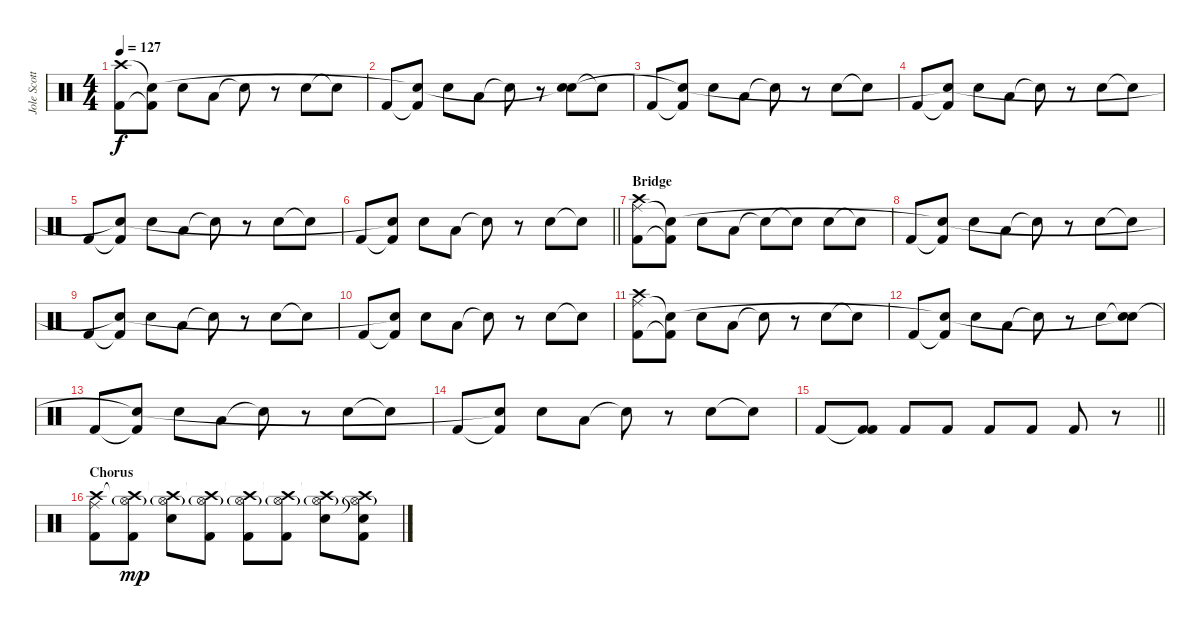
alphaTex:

\track ("Jole Scott Key" "Jole Scott") {instrument percussion}
\staff {score}
\articulation defaults
\ts (4 4)
\tempo 127
\clef neutral
\ks c
("Kick (hit) 2" "Crash high (hit)").8{dy f} ("Kick (hit) 2"{t} "Electric Snare (hit)"{t}).8 "Electric Snare (hit)".8 "Low Floor Tom (hit)".8 "Snare (hit)"{t}.8 r.8 "Electric Snare (hit)".8 "Electric Snare (hit)"{t}.8 |
"Kick (hit) 2".8 ("Kick (hit) 2"{t} "Electric Snare (hit)"{t}).8 "Electric Snare (hit)".8 "Low Floor Tom (hit)".8 "Snare (hit)"{t}.8 r.8 ("Electric Snare (hit)" "Snare (hit)"{t}).8 "Electric Snare (hit)"{t}.8 |
"Kick (hit) 2".8 ("Kick (hit) 2"{t} "Electric Snare (hit)"{t}).8 "Electric Snare (hit)".8 "Low Floor Tom (hit)".8 "Snare (hit)"{t}.8 r.8 "Electric Snare (hit)".8 "Electric Snare (hit)"{t}.8 |
"Kick (hit) 2".8 ("Kick (hit) 2"{t} "Electric Snare (hit)"{t}).8 "Electric Snare (hit)".8 "Low Floor Tom (hit)".8 "Snare (hit)"{t}.8 r.8 "Electric Snare (hit)".8 "Electric Snare (hit)"{t}.8 |
"Kick (hit) 2".8 ("Kick (hit) 2"{t} "Electric Snare (hit)"{t}).8 "Electric Snare (hit)".8 "Low Floor Tom (hit)".8 "Snare (hit)"{t}.8 r.8 "Electric Snare (hit)".8 "Electric Snare (hit)"{t}.8 |
\barLineRight lightlight "Kick (hit) 2".8
("Kick (hit) 2"{t} "Electric Snare (hit)"{t}).8 "Electric Snare (hit)".8 "Low Floor Tom (hit)".8 "Snare (hit)"{t}.8 r.8 "Electric Snare (hit)".8 "Electric Snare (hit)"{t}.8 |
\section ("" "Bridge")
("Kick (hit) 2" "Ride (middle)" "Crash high (hit)").8 ("Kick (hit) 2"{t} "Electric Snare (hit)"{t}).8 "Electric Snare (hit)".8 "Low Floor Tom (hit)".8 "Snare (hit)"{t}.8 "Snare (hit)"{t}.8 "Electric Snare (hit)".8 "Electric Snare (hit)"{t}.8 |
"Kick (hit) 2".8 ("Kick (hit) 2"{t} "Electric Snare (hit)"{t}).8 "Electric Snare (hit)".8 "Low Floor Tom (hit)".8 "Snare (hit)"{t}.8 r.8 "Electric Snare (hit)".8 "Electric Snare (hit)"{t}.8 |
"Kick (hit) 2".8 ("Kick (hit) 2"{t} "Electric Snare (hit)"{t}).8 "Electric Snare (hit)".8 "Low Floor Tom (hit)".8 "Snare (hit)"{t}.8 r.8 "Electric Snare (hit)".8 "Electric Snare (hit)"{t}.8 |
"Kick (hit) 2".8 ("Kick (hit) 2"{t} "Electric Snare (hit)"{t}).8 "Electric Snare (hit)".8 "Low Floor Tom (hit)".8 "Snare (hit)"{t}.8 r.8 "Electric Snare (hit)".8 "Electric Snare (hit)"{t}.8 |
("Kick (hit) 2" "Ride (middle)" "Crash high (hit)").8 ("Kick (hit) 2"{t} "Electric Snare (hit)"{t}).8 "Electric Snare (hit)".8 "Low Floor Tom (hit)".8 "Snare (hit)"{t}.8 r.8 "Electric Snare (hit)".8 "Electric Snare (hit)"{t}.8 |
"Kick (hit) 2".8 ("Kick (hit) 2"{t} "Electric Snare (hit)"{t}).8 "Electric Snare (hit)".8 "Low Floor Tom (hit)".8 "Snare (hit)"{t}.8 r.8 "Electric Snare (hit)".8 ("Electric Snare (hit)"{t} "Snare (hit)"{t}).8 |
"Kick (hit) 2".8 ("Kick (hit) 2"{t} "Electric Snare (hit)"{t}).8 "Electric Snare (hit)".8 "Low Floor Tom (hit)".8 "Snare (hit)"{t}.8 r.8 "Electric Snare (hit)".8 "Electric Snare (hit)"{t}.8 |
"Kick (hit) 2".8 ("Kick (hit) 2"{t} "Electric Snare (hit)"{t}).8 "Electric Snare (hit)".8 "Low Floor Tom (hit)".8 "Snare (hit)"{t}.8 r.8 "Electric Snare (hit)".8 "Electric Snare (hit)"{t}.8 |
\barLineRight lightlight "Kick (hit) 2".8
("Kick (hit) 2"{t} "Kick (hit) 2").8 "Kick (hit) 2".8 "Kick (hit) 2".8 "Kick (hit) 2".8 "Kick (hit) 2".8 "Kick (hit) 2".8 r.8 |
\section ("" "Chorus")
("Kick (hit) 2" "Ride (middle)" "Crash high (hit)").8 ("Kick (hit) 2" "Hi-Hat (open)"{g} "Crash high (hit)"{t}).8{dy mp} ("Electric Snare (hit)" "Hi-Hat (open)"{g} "Crash high (hit)"{t}).8 ("Kick (hit) 2" "Hi-Hat (open)"{g} "Crash high (hit)"{t}).8 ("Kick (hit) 2" "Hi-Hat (open)"{g} "Crash high (hit)"{t}).8 ("Kick (hit) 2" "Hi-Hat (open)"{g} "Crash high (hit)"{t}).8 ("Electric Snare (hit)" "Hi-Hat (open)"{g} "Crash high (hit)"{t}).8 ("Kick (hit) 2" "Snare (hit)"{t} "Hi-Hat (open)"{g} "Crash high (hit)").8
